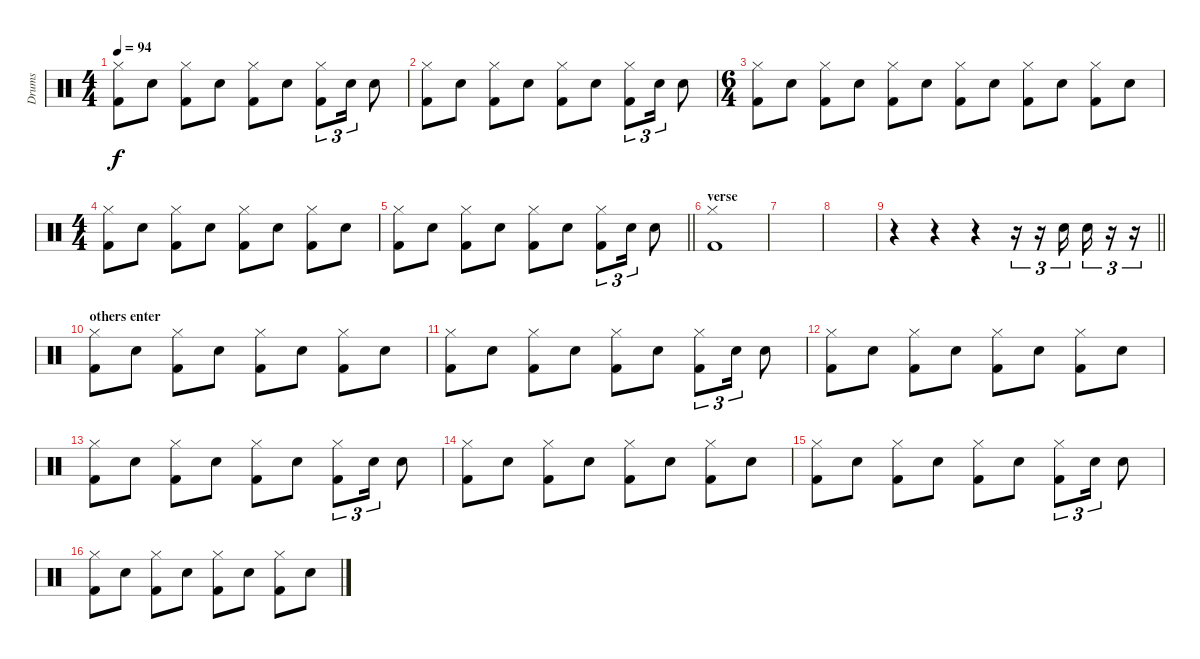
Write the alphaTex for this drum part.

\track ("Drums" "Drums") {instrument percussion}
\staff {score}
\articulation defaults
\ts (4 4)
\tempo 94
\clef neutral
\ks c
("Hi-Hat (closed)" "Kick (hit) 2").8{dy f} "Electric Snare (hit)".8 ("Hi-Hat (closed)" "Kick (hit) 2").8 "Electric Snare (hit)".8 ("Hi-Hat (closed)" "Kick (hit) 2").8 "Electric Snare (hit)".8 ("Hi-Hat (closed)" "Kick (hit) 2").8{tu (3 2)} "Electric Snare (hit)".16{tu (3 2)} "Electric Snare (hit)".8 |
("Hi-Hat (closed)" "Kick (hit) 2").8 "Electric Snare (hit)".8 ("Hi-Hat (closed)" "Kick (hit) 2").8 "Electric Snare (hit)".8 ("Hi-Hat (closed)" "Kick (hit) 2").8 "Electric Snare (hit)".8 ("Hi-Hat (closed)" "Kick (hit) 2").8{tu (3 2)} "Electric Snare (hit)".16{tu (3 2)} "Electric Snare (hit)".8 |
\ts (6 4)
("Hi-Hat (closed)" "Kick (hit) 2").8 "Electric Snare (hit)".8 ("Hi-Hat (closed)" "Kick (hit) 2").8 "Electric Snare (hit)".8 ("Hi-Hat (closed)" "Kick (hit) 2").8 "Electric Snare (hit)".8 ("Hi-Hat (closed)" "Kick (hit) 2").8 "Electric Snare (hit)".8 ("Hi-Hat (closed)" "Kick (hit) 2").8 "Electric Snare (hit)".8 ("Hi-Hat (closed)" "Kick (hit) 2").8 "Electric Snare (hit)".8 |
\ts (4 4)
("Hi-Hat (closed)" "Kick (hit) 2").8 "Electric Snare (hit)".8 ("Hi-Hat (closed)" "Kick (hit) 2").8 "Electric Snare (hit)".8 ("Hi-Hat (closed)" "Kick (hit) 2").8 "Electric Snare (hit)".8 ("Hi-Hat (closed)" "Kick (hit) 2").8 "Electric Snare (hit)".8 |
\barLineRight lightlight
("Hi-Hat (closed)" "Kick (hit) 2").8 "Electric Snare (hit)".8 ("Hi-Hat (closed)" "Kick (hit) 2").8 "Electric Snare (hit)".8 ("Hi-Hat (closed)" "Kick (hit) 2").8 "Electric Snare (hit)".8 ("Hi-Hat (closed)" "Kick (hit) 2").8{tu (3 2)} "Electric Snare (hit)".16{tu (3 2)} "Electric Snare (hit)".8 |
\section ("" "verse")
("Hi-Hat (closed)" "Kick (hit) 2").1 |
|
|
\barLineRight lightlight
r.4 r.4 r.4 r.16{tu (3 2)} r.16{tu (3 2)} "Electric Snare (hit)".16{tu (3 2)} "Electric Snare (hit)".16{tu (3 2)} r.16{tu (3 2)} r.16{tu (3 2)} |
\section ("" "others enter")
("Hi-Hat (closed)" "Kick (hit) 2").8 "Electric Snare (hit)".8 ("Hi-Hat (closed)" "Kick (hit) 2").8 "Electric Snare (hit)".8 ("Hi-Hat (closed)" "Kick (hit) 2").8 "Electric Snare (hit)".8 ("Hi-Hat (closed)" "Kick (hit) 2").8 "Electric Snare (hit)".8 |
("Hi-Hat (closed)" "Kick (hit) 2").8 "Electric Snare (hit)".8 ("Hi-Hat (closed)" "Kick (hit) 2").8 "Electric Snare (hit)".8 ("Hi-Hat (closed)" "Kick (hit) 2").8 "Electric Snare (hit)".8 ("Hi-Hat (closed)" "Kick (hit) 2").8{tu (3 2)} "Electric Snare (hit)".16{tu (3 2)} "Electric Snare (hit)".8 |
("Hi-Hat (closed)" "Kick (hit) 2").8 "Electric Snare (hit)".8 ("Hi-Hat (closed)" "Kick (hit) 2").8 "Electric Snare (hit)".8 ("Hi-Hat (closed)" "Kick (hit) 2").8 "Electric Snare (hit)".8 ("Hi-Hat (closed)" "Kick (hit) 2").8 "Electric Snare (hit)".8 |
("Hi-Hat (closed)" "Kick (hit) 2").8 "Electric Snare (hit)".8 ("Hi-Hat (closed)" "Kick (hit) 2").8 "Electric Snare (hit)".8 ("Hi-Hat (closed)" "Kick (hit) 2").8 "Electric Snare (hit)".8 ("Hi-Hat (closed)" "Kick (hit) 2").8{tu (3 2)} "Electric Snare (hit)".16{tu (3 2)} "Electric Snare (hit)".8 |
("Hi-Hat (closed)" "Kick (hit) 2").8 "Electric Snare (hit)".8 ("Hi-Hat (closed)" "Kick (hit) 2").8 "Electric Snare (hit)".8 ("Hi-Hat (closed)" "Kick (hit) 2").8 "Electric Snare (hit)".8 ("Hi-Hat (closed)" "Kick (hit) 2").8 "Electric Snare (hit)".8 |
("Hi-Hat (closed)" "Kick (hit) 2").8 "Electric Snare (hit)".8 ("Hi-Hat (closed)" "Kick (hit) 2").8 "Electric Snare (hit)".8 ("Hi-Hat (closed)" "Kick (hit) 2").8 "Electric Snare (hit)".8 ("Hi-Hat (closed)" "Kick (hit) 2").8{tu (3 2)} "Electric Snare (hit)".16{tu (3 2)} "Electric Snare (hit)".8 |
("Hi-Hat (closed)" "Kick (hit) 2").8 "Electric Snare (hit)".8 ("Hi-Hat (closed)" "Kick (hit) 2").8 "Electric Snare (hit)".8 ("Hi-Hat (closed)" "Kick (hit) 2").8 "Electric Snare (hit)".8 ("Hi-Hat (closed)" "Kick (hit) 2").8 "Electric Snare (hit)".8
